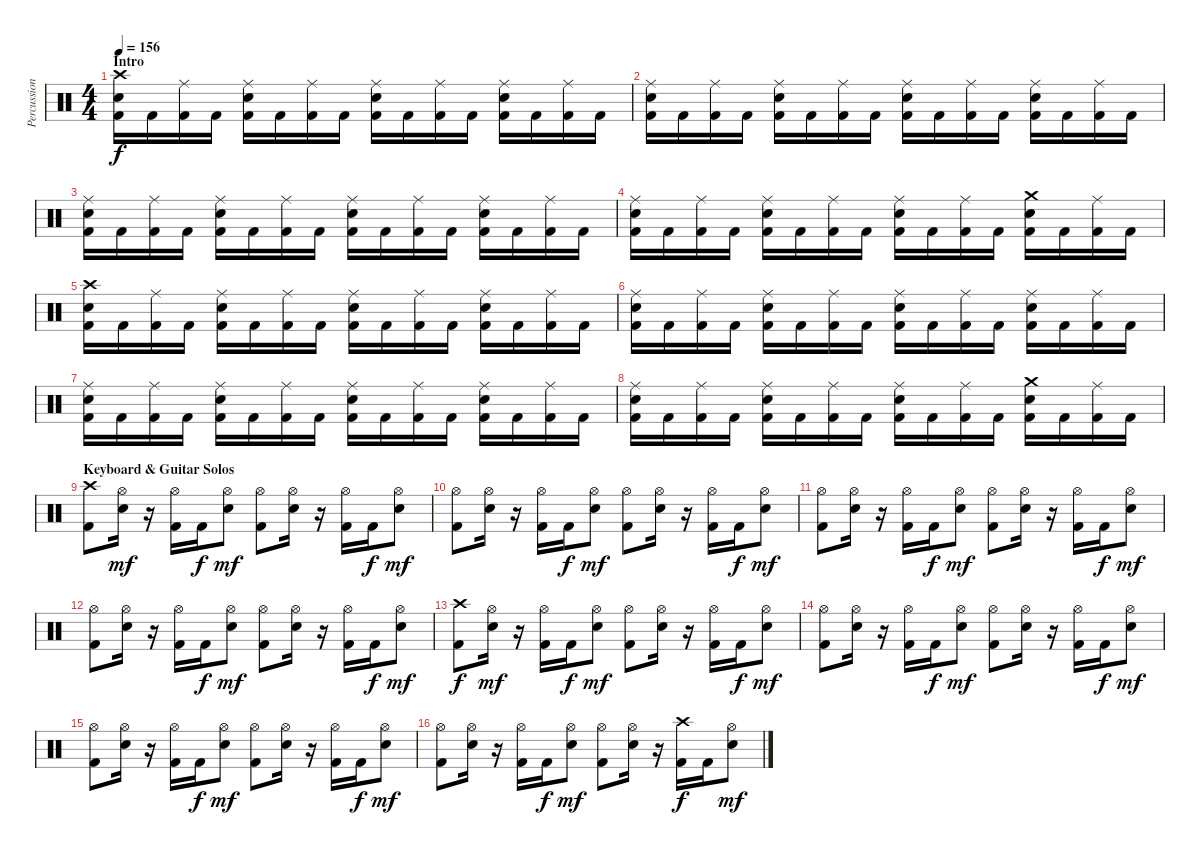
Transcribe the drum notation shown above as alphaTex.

\track ("Percussion" "Percussion") {instrument percussion}
\staff {score}
\articulation defaults
\ts (4 4)
\section ("" "Intro")
\tempo 156
\clef neutral
\ks c
("Crash high (hit)" "Electric Snare (hit)" "Kick (hit) 2").16{dy f} "Kick (hit) 2".16 ("Ride (middle)" "Kick (hit) 2").16 "Kick (hit) 2".16 ("Ride (middle)" "Electric Snare (hit)" "Kick (hit) 2").16 "Kick (hit) 2".16 ("Ride (middle)" "Kick (hit) 2").16 "Kick (hit) 2".16 ("Ride (middle)" "Electric Snare (hit)" "Kick (hit) 2").16 "Kick (hit) 2".16 ("Ride (middle)" "Kick (hit) 2").16 "Kick (hit) 2".16 ("Ride (middle)" "Electric Snare (hit)" "Kick (hit) 2").16 "Kick (hit) 2".16 ("Ride (middle)" "Kick (hit) 2").16 "Kick (hit) 2".16 |
("Ride (middle)" "Electric Snare (hit)" "Kick (hit) 2").16 "Kick (hit) 2".16 ("Ride (middle)" "Kick (hit) 2").16 "Kick (hit) 2".16 ("Ride (middle)" "Electric Snare (hit)" "Kick (hit) 2").16 "Kick (hit) 2".16 ("Ride (middle)" "Kick (hit) 2").16 "Kick (hit) 2".16 ("Ride (middle)" "Electric Snare (hit)" "Kick (hit) 2").16 "Kick (hit) 2".16 ("Ride (middle)" "Kick (hit) 2").16 "Kick (hit) 2".16 ("Ride (middle)" "Electric Snare (hit)" "Kick (hit) 2").16 "Kick (hit) 2".16 ("Ride (middle)" "Kick (hit) 2").16 "Kick (hit) 2".16 |
("Ride (middle)" "Electric Snare (hit)" "Kick (hit) 2").16 "Kick (hit) 2".16 ("Ride (middle)" "Kick (hit) 2").16 "Kick (hit) 2".16 ("Ride (middle)" "Electric Snare (hit)" "Kick (hit) 2").16 "Kick (hit) 2".16 ("Ride (middle)" "Kick (hit) 2").16 "Kick (hit) 2".16 ("Ride (middle)" "Electric Snare (hit)" "Kick (hit) 2").16 "Kick (hit) 2".16 ("Ride (middle)" "Kick (hit) 2").16 "Kick (hit) 2".16 ("Ride (middle)" "Electric Snare (hit)" "Kick (hit) 2").16 "Kick (hit) 2".16 ("Ride (middle)" "Kick (hit) 2").16 "Kick (hit) 2".16 |
("Ride (middle)" "Electric Snare (hit)" "Kick (hit) 2").16 "Kick (hit) 2".16 ("Ride (middle)" "Kick (hit) 2").16 "Kick (hit) 2".16 ("Ride (middle)" "Electric Snare (hit)" "Kick (hit) 2").16 "Kick (hit) 2".16 ("Ride (middle)" "Kick (hit) 2").16 "Kick (hit) 2".16 ("Ride (middle)" "Electric Snare (hit)" "Kick (hit) 2").16 "Kick (hit) 2".16 ("Ride (middle)" "Kick (hit) 2").16 "Kick (hit) 2".16 ("Crash medium (hit)" "Electric Snare (hit)" "Kick (hit) 2").16 "Kick (hit) 2".16 ("Ride (middle)" "Kick (hit) 2").16 "Kick (hit) 2".16 |
("Crash high (hit)" "Electric Snare (hit)" "Kick (hit) 2").16 "Kick (hit) 2".16 ("Ride (middle)" "Kick (hit) 2").16 "Kick (hit) 2".16 ("Ride (middle)" "Electric Snare (hit)" "Kick (hit) 2").16 "Kick (hit) 2".16 ("Ride (middle)" "Kick (hit) 2").16 "Kick (hit) 2".16 ("Ride (middle)" "Electric Snare (hit)" "Kick (hit) 2").16 "Kick (hit) 2".16 ("Ride (middle)" "Kick (hit) 2").16 "Kick (hit) 2".16 ("Ride (middle)" "Electric Snare (hit)" "Kick (hit) 2").16 "Kick (hit) 2".16 ("Ride (middle)" "Kick (hit) 2").16 "Kick (hit) 2".16 |
("Ride (middle)" "Electric Snare (hit)" "Kick (hit) 2").16 "Kick (hit) 2".16 ("Ride (middle)" "Kick (hit) 2").16 "Kick (hit) 2".16 ("Ride (middle)" "Electric Snare (hit)" "Kick (hit) 2").16 "Kick (hit) 2".16 ("Ride (middle)" "Kick (hit) 2").16 "Kick (hit) 2".16 ("Ride (middle)" "Electric Snare (hit)" "Kick (hit) 2").16 "Kick (hit) 2".16 ("Ride (middle)" "Kick (hit) 2").16 "Kick (hit) 2".16 ("Ride (middle)" "Electric Snare (hit)" "Kick (hit) 2").16 "Kick (hit) 2".16 ("Ride (middle)" "Kick (hit) 2").16 "Kick (hit) 2".16 |
("Ride (middle)" "Electric Snare (hit)" "Kick (hit) 2").16 "Kick (hit) 2".16 ("Ride (middle)" "Kick (hit) 2").16 "Kick (hit) 2".16 ("Ride (middle)" "Electric Snare (hit)" "Kick (hit) 2").16 "Kick (hit) 2".16 ("Ride (middle)" "Kick (hit) 2").16 "Kick (hit) 2".16 ("Ride (middle)" "Electric Snare (hit)" "Kick (hit) 2").16 "Kick (hit) 2".16 ("Ride (middle)" "Kick (hit) 2").16 "Kick (hit) 2".16 ("Ride (middle)" "Electric Snare (hit)" "Kick (hit) 2").16 "Kick (hit) 2".16 ("Ride (middle)" "Kick (hit) 2").16 "Kick (hit) 2".16 |
("Ride (middle)" "Electric Snare (hit)" "Kick (hit) 2").16 "Kick (hit) 2".16 ("Ride (middle)" "Kick (hit) 2").16 "Kick (hit) 2".16 ("Ride (middle)" "Electric Snare (hit)" "Kick (hit) 2").16 "Kick (hit) 2".16 ("Ride (middle)" "Kick (hit) 2").16 "Kick (hit) 2".16 ("Ride (middle)" "Electric Snare (hit)" "Kick (hit) 2").16 "Kick (hit) 2".16 ("Ride (middle)" "Kick (hit) 2").16 "Kick (hit) 2".16 ("Crash medium (hit)" "Electric Snare (hit)" "Kick (hit) 2").16 "Kick (hit) 2".16 ("Ride (middle)" "Kick (hit) 2").16 "Kick (hit) 2".16 |
\section ("" "Keyboard & Guitar Solos")
("Crash high (hit)" "Kick (hit) 2").8 ("Hi-Hat (open)" "Electric Snare (hit)").16{dy mf} r.16 ("Hi-Hat (open)" "Kick (hit) 2").16 "Kick (hit) 2".16{dy f} ("Hi-Hat (open)" "Electric Snare (hit)").8{dy mf} ("Hi-Hat (open)" "Kick (hit) 2").8 ("Hi-Hat (open)" "Electric Snare (hit)").16 r.16 ("Hi-Hat (open)" "Kick (hit) 2").16 "Kick (hit) 2".16{dy f} ("Hi-Hat (open)" "Electric Snare (hit)").8{dy mf} |
("Hi-Hat (open)" "Kick (hit) 2").8 ("Hi-Hat (open)" "Electric Snare (hit)").16 r.16 ("Hi-Hat (open)" "Kick (hit) 2").16 "Kick (hit) 2".16{dy f} ("Hi-Hat (open)" "Electric Snare (hit)").8{dy mf} ("Hi-Hat (open)" "Kick (hit) 2").8 ("Hi-Hat (open)" "Electric Snare (hit)").16 r.16 ("Hi-Hat (open)" "Kick (hit) 2").16 "Kick (hit) 2".16{dy f} ("Hi-Hat (open)" "Electric Snare (hit)").8{dy mf} |
("Hi-Hat (open)" "Kick (hit) 2").8 ("Hi-Hat (open)" "Electric Snare (hit)").16 r.16 ("Hi-Hat (open)" "Kick (hit) 2").16 "Kick (hit) 2".16{dy f} ("Hi-Hat (open)" "Electric Snare (hit)").8{dy mf} ("Hi-Hat (open)" "Kick (hit) 2").8 ("Hi-Hat (open)" "Electric Snare (hit)").16 r.16 ("Hi-Hat (open)" "Kick (hit) 2").16 "Kick (hit) 2".16{dy f} ("Hi-Hat (open)" "Electric Snare (hit)").8{dy mf} |
("Hi-Hat (open)" "Kick (hit) 2").8 ("Hi-Hat (open)" "Electric Snare (hit)").16 r.16 ("Hi-Hat (open)" "Kick (hit) 2").16 "Kick (hit) 2".16{dy f} ("Hi-Hat (open)" "Electric Snare (hit)").8{dy mf} ("Hi-Hat (open)" "Kick (hit) 2").8 ("Hi-Hat (open)" "Electric Snare (hit)").16 r.16 ("Hi-Hat (open)" "Kick (hit) 2").16 "Kick (hit) 2".16{dy f} ("Hi-Hat (open)" "Electric Snare (hit)").8{dy mf} |
("Crash high (hit)" "Kick (hit) 2").8{dy f} ("Hi-Hat (open)" "Electric Snare (hit)").16{dy mf} r.16 ("Hi-Hat (open)" "Kick (hit) 2").16 "Kick (hit) 2".16{dy f} ("Hi-Hat (open)" "Electric Snare (hit)").8{dy mf} ("Hi-Hat (open)" "Kick (hit) 2").8 ("Hi-Hat (open)" "Electric Snare (hit)").16 r.16 ("Hi-Hat (open)" "Kick (hit) 2").16 "Kick (hit) 2".16{dy f} ("Hi-Hat (open)" "Electric Snare (hit)").8{dy mf} |
("Hi-Hat (open)" "Kick (hit) 2").8 ("Hi-Hat (open)" "Electric Snare (hit)").16 r.16 ("Hi-Hat (open)" "Kick (hit) 2").16 "Kick (hit) 2".16{dy f} ("Hi-Hat (open)" "Electric Snare (hit)").8{dy mf} ("Hi-Hat (open)" "Kick (hit) 2").8 ("Hi-Hat (open)" "Electric Snare (hit)").16 r.16 ("Hi-Hat (open)" "Kick (hit) 2").16 "Kick (hit) 2".16{dy f} ("Hi-Hat (open)" "Electric Snare (hit)").8{dy mf} |
("Hi-Hat (open)" "Kick (hit) 2").8 ("Hi-Hat (open)" "Electric Snare (hit)").16 r.16 ("Hi-Hat (open)" "Kick (hit) 2").16 "Kick (hit) 2".16{dy f} ("Hi-Hat (open)" "Electric Snare (hit)").8{dy mf} ("Hi-Hat (open)" "Kick (hit) 2").8 ("Hi-Hat (open)" "Electric Snare (hit)").16 r.16 ("Hi-Hat (open)" "Kick (hit) 2").16 "Kick (hit) 2".16{dy f} ("Hi-Hat (open)" "Electric Snare (hit)").8{dy mf} |
("Hi-Hat (open)" "Kick (hit) 2").8 ("Hi-Hat (open)" "Electric Snare (hit)").16 r.16 ("Hi-Hat (open)" "Kick (hit) 2").16 "Kick (hit) 2".16{dy f} ("Hi-Hat (open)" "Electric Snare (hit)").8{dy mf} ("Hi-Hat (open)" "Kick (hit) 2").8 ("Hi-Hat (open)" "Electric Snare (hit)").16 r.16 ("Crash high (hit)" "Kick (hit) 2").16{dy f} "Kick (hit) 2".16 ("Hi-Hat (open)" "Electric Snare (hit)").8{dy mf}
